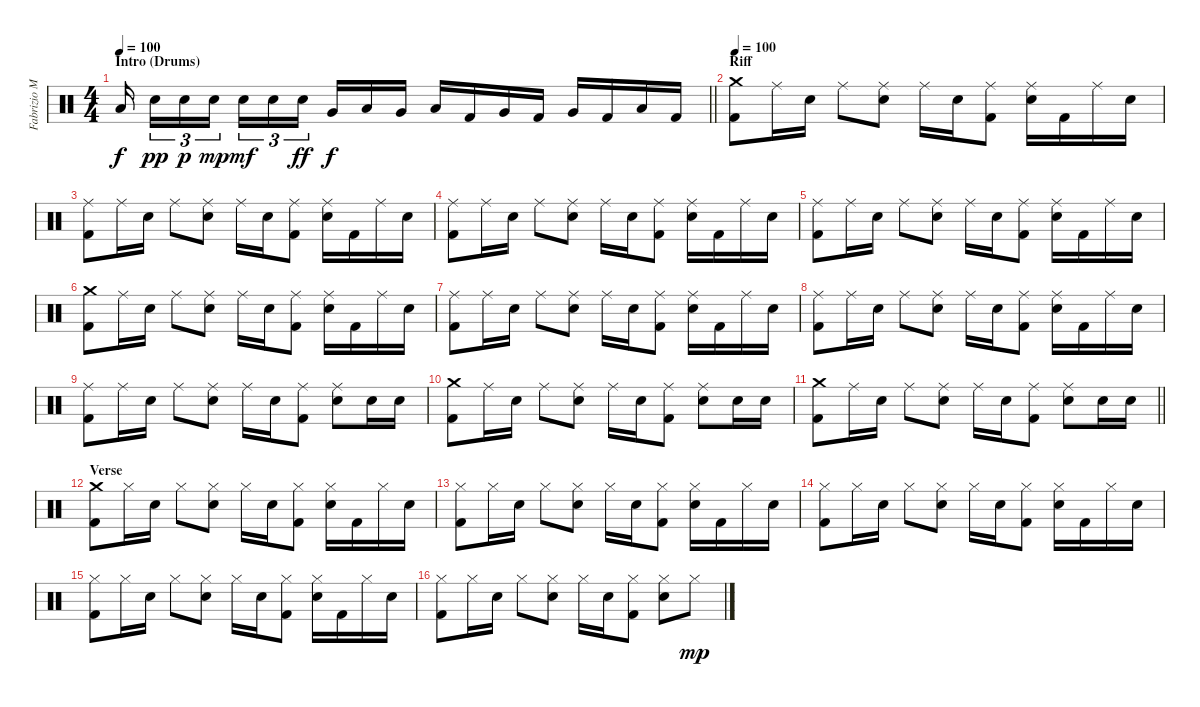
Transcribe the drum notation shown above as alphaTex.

\track ("Fabrizio Moretti" "Fabrizio M") {instrument percussion}
\staff {score}
\articulation defaults
\ts (4 4)
\section ("" "Intro (Drums)")
\tempo 100
\tempo 120
\tempo 100
\clef neutral
\barLineRight lightlight
\ks c "Low Tom (hit)".16{dy f beam splitsecondary} "Snare (hit) 2".16{tu (3 2) dy pp} "Snare (hit) 2".16{tu (3 2) dy p} "Snare (hit) 2".16{tu (3 2) dy mp beam splitsecondary} "Snare (hit) 2".16{tu (3 2) dy mf} "Snare (hit) 2".16{tu (3 2)} "Snare (hit) 2".16{tu (3 2) dy ff beam splitsecondary} "Very Low Tom (hit)".16{dy f} "Low Floor Tom (hit)".16 "Very Low Tom (hit)".16 "Low Tom (hit)".16 "Kick (hit) 2".16 "Very Low Tom (hit)".16 "Kick (hit) 2".16 "Very Low Tom (hit)".16 "Kick (hit) 2".16 "Low Floor Tom (hit)".16 "Kick (hit) 2".16
|
\section ("" "Riff")
\tempo 100
("Crash medium (hit)" "Kick (hit) 2").8 "Ride (middle)".16 "Snare (hit) 2".16 "Ride (middle)".8 ("Ride (middle)" "Snare (hit) 2").8 "Ride (middle)".16 "Snare (hit) 2".16 ("Ride (middle)" "Kick (hit) 2").8 ("Ride (middle)" "Snare (hit) 2").16 "Kick (hit) 2".16 "Ride (middle)".16 "Snare (hit) 2".16 |
("Ride (middle)" "Kick (hit) 2").8 "Ride (middle)".16 "Snare (hit) 2".16 "Ride (middle)".8 ("Ride (middle)" "Snare (hit) 2").8 "Ride (middle)".16 "Snare (hit) 2".16 ("Ride (middle)" "Kick (hit) 2").8 ("Ride (middle)" "Snare (hit) 2").16 "Kick (hit) 2".16 "Ride (middle)".16 "Snare (hit) 2".16 |
("Ride (middle)" "Kick (hit) 2").8 "Ride (middle)".16 "Snare (hit) 2".16 "Ride (middle)".8 ("Ride (middle)" "Snare (hit) 2").8 "Ride (middle)".16 "Snare (hit) 2".16 ("Ride (middle)" "Kick (hit) 2").8 ("Ride (middle)" "Snare (hit) 2").16 "Kick (hit) 2".16 "Ride (middle)".16 "Snare (hit) 2".16 |
("Ride (middle)" "Kick (hit) 2").8 "Ride (middle)".16 "Snare (hit) 2".16 "Ride (middle)".8 ("Ride (middle)" "Snare (hit) 2").8 "Ride (middle)".16 "Snare (hit) 2".16 ("Ride (middle)" "Kick (hit) 2").8 ("Ride (middle)" "Snare (hit) 2").16 "Kick (hit) 2".16 "Ride (middle)".16 "Snare (hit) 2".16 |
("Crash medium (hit)" "Kick (hit) 2").8 "Ride (middle)".16 "Snare (hit) 2".16 "Ride (middle)".8 ("Ride (middle)" "Snare (hit) 2").8 "Ride (middle)".16 "Snare (hit) 2".16 ("Ride (middle)" "Kick (hit) 2").8 ("Ride (middle)" "Snare (hit) 2").16 "Kick (hit) 2".16 "Ride (middle)".16 "Snare (hit) 2".16 |
("Ride (middle)" "Kick (hit) 2").8 "Ride (middle)".16 "Snare (hit) 2".16 "Ride (middle)".8 ("Ride (middle)" "Snare (hit) 2").8 "Ride (middle)".16 "Snare (hit) 2".16 ("Ride (middle)" "Kick (hit) 2").8 ("Ride (middle)" "Snare (hit) 2").16 "Kick (hit) 2".16 "Ride (middle)".16 "Snare (hit) 2".16 |
("Ride (middle)" "Kick (hit) 2").8 "Ride (middle)".16 "Snare (hit) 2".16 "Ride (middle)".8 ("Ride (middle)" "Snare (hit) 2").8 "Ride (middle)".16 "Snare (hit) 2".16 ("Ride (middle)" "Kick (hit) 2").8 ("Ride (middle)" "Snare (hit) 2").16 "Kick (hit) 2".16 "Ride (middle)".16 "Snare (hit) 2".16 |
("Ride (middle)" "Kick (hit) 2").8 "Ride (middle)".16 "Snare (hit) 2".16 "Ride (middle)".8 ("Ride (middle)" "Snare (hit) 2").8 "Ride (middle)".16 "Snare (hit) 2".16 ("Ride (middle)" "Kick (hit) 2").8 ("Ride (middle)" "Snare (hit) 2").8 "Snare (hit) 2".16 "Snare (hit) 2".16 |
("Crash medium (hit)" "Kick (hit) 2").8 "Ride (middle)".16 "Snare (hit) 2".16 "Ride (middle)".8 ("Ride (middle)" "Snare (hit) 2").8 "Ride (middle)".16 "Snare (hit) 2".16 ("Ride (middle)" "Kick (hit) 2").8 ("Ride (middle)" "Snare (hit) 2").8 "Snare (hit) 2".16 "Snare (hit) 2".16 |
\barLineRight lightlight
("Crash medium (hit)" "Kick (hit) 2").8 "Ride (middle)".16 "Snare (hit) 2".16 "Ride (middle)".8 ("Ride (middle)" "Snare (hit) 2").8 "Ride (middle)".16 "Snare (hit) 2".16 ("Ride (middle)" "Kick (hit) 2").8 ("Ride (middle)" "Snare (hit) 2").8 "Snare (hit) 2".16 "Snare (hit) 2".16 |
\section ("" "Verse")
("Crash medium (hit)" "Kick (hit) 2").8 "Hi-Hat (closed)".16 "Snare (hit) 2".16 "Hi-Hat (closed)".8 ("Hi-Hat (closed)" "Snare (hit) 2").8 "Hi-Hat (closed)".16 "Snare (hit) 2".16 ("Hi-Hat (closed)" "Kick (hit) 2").8 ("Hi-Hat (closed)" "Snare (hit) 2").16 "Kick (hit) 2".16 "Hi-Hat (closed)".16 "Snare (hit) 2".16 |
("Hi-Hat (closed)" "Kick (hit) 2").8 "Hi-Hat (closed)".16 "Snare (hit) 2".16 "Hi-Hat (closed)".8 ("Hi-Hat (closed)" "Snare (hit) 2").8 "Hi-Hat (closed)".16 "Snare (hit) 2".16 ("Hi-Hat (closed)" "Kick (hit) 2").8 ("Hi-Hat (closed)" "Snare (hit) 2").16 "Kick (hit) 2".16 "Hi-Hat (closed)".16 "Snare (hit) 2".16 |
("Hi-Hat (closed)" "Kick (hit) 2").8 "Hi-Hat (closed)".16 "Snare (hit) 2".16 "Hi-Hat (closed)".8 ("Hi-Hat (closed)" "Snare (hit) 2").8 "Hi-Hat (closed)".16 "Snare (hit) 2".16 ("Hi-Hat (closed)" "Kick (hit) 2").8 ("Hi-Hat (closed)" "Snare (hit) 2").16 "Kick (hit) 2".16 "Hi-Hat (closed)".16 "Snare (hit) 2".16 |
("Hi-Hat (closed)" "Kick (hit) 2").8 "Hi-Hat (closed)".16 "Snare (hit) 2".16 "Hi-Hat (closed)".8 ("Hi-Hat (closed)" "Snare (hit) 2").8 "Hi-Hat (closed)".16 "Snare (hit) 2".16 ("Hi-Hat (closed)" "Kick (hit) 2").8 ("Hi-Hat (closed)" "Snare (hit) 2").16 "Kick (hit) 2".16 "Hi-Hat (closed)".16 "Snare (hit) 2".16 |
("Hi-Hat (closed)" "Kick (hit) 2").8 "Hi-Hat (closed)".16 "Snare (hit) 2".16 "Hi-Hat (closed)".8 ("Hi-Hat (closed)" "Snare (hit) 2").8 "Hi-Hat (closed)".16 "Snare (hit) 2".16 ("Hi-Hat (closed)" "Kick (hit) 2").8 ("Hi-Hat (closed)" "Snare (hit) 2").8 "Hi-Hat (closed)".8{dy mp}
